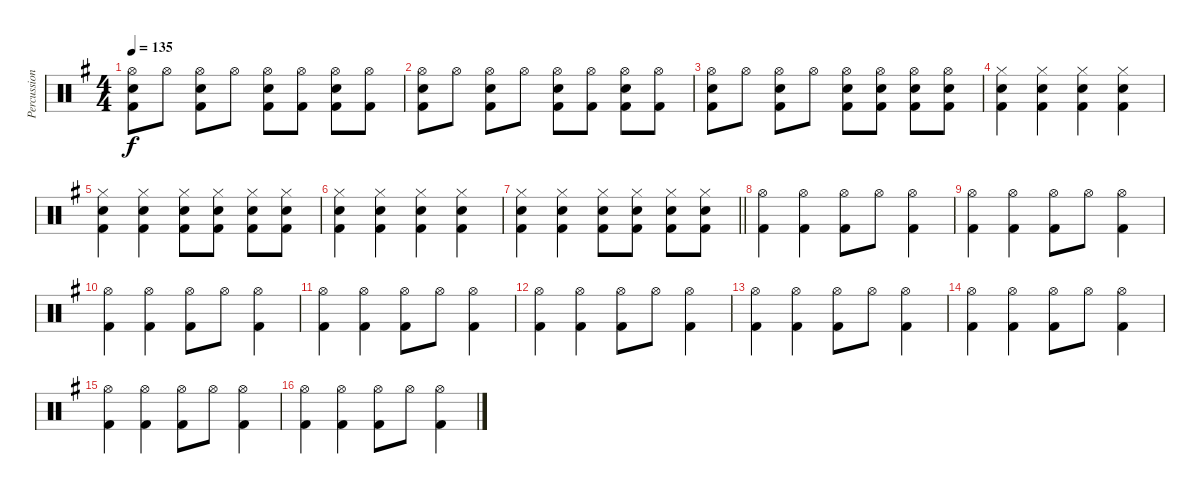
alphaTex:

\track ("Percussion" "Percussion") {instrument percussion}
\staff {score}
\articulation defaults
\ts (4 4)
\tempo 135
\clef neutral
\ks g
("Hi-Hat (open)" "Snare (hit) 2" "Kick (hit) 2").8{dy f} "Hi-Hat (open)".8 ("Hi-Hat (open)" "Snare (hit) 2" "Kick (hit) 2").8 "Hi-Hat (open)".8 ("Hi-Hat (open)" "Snare (hit) 2" "Kick (hit) 2").8 ("Hi-Hat (open)" "Kick (hit) 2").8 ("Hi-Hat (open)" "Snare (hit) 2" "Kick (hit) 2").8 ("Hi-Hat (open)" "Kick (hit) 2").8 |
("Hi-Hat (open)" "Snare (hit) 2" "Kick (hit) 2").8 "Hi-Hat (open)".8 ("Hi-Hat (open)" "Snare (hit) 2" "Kick (hit) 2").8 "Hi-Hat (open)".8 ("Hi-Hat (open)" "Snare (hit) 2" "Kick (hit) 2").8 ("Hi-Hat (open)" "Kick (hit) 2").8 ("Hi-Hat (open)" "Snare (hit) 2" "Kick (hit) 2").8 ("Hi-Hat (open)" "Kick (hit) 2").8 |
("Hi-Hat (open)" "Snare (hit) 2" "Kick (hit) 2").8 "Hi-Hat (open)".8 ("Hi-Hat (open)" "Snare (hit) 2" "Kick (hit) 2").8 "Hi-Hat (open)".8 ("Hi-Hat (open)" "Snare (hit) 2" "Kick (hit) 2").8 ("Hi-Hat (open)" "Snare (hit) 2" "Kick (hit) 2").8 ("Hi-Hat (open)" "Snare (hit) 2" "Kick (hit) 2").8 ("Hi-Hat (open)" "Snare (hit) 2" "Kick (hit) 2").8 |
("Hi-Hat (closed)" "Snare (hit) 2" "Kick (hit) 2").4 ("Hi-Hat (closed)" "Snare (hit) 2" "Kick (hit) 2").4 ("Hi-Hat (closed)" "Snare (hit) 2" "Kick (hit) 2").4 ("Hi-Hat (closed)" "Snare (hit) 2" "Kick (hit) 2").4 |
("Hi-Hat (closed)" "Snare (hit) 2" "Kick (hit) 2").4 ("Hi-Hat (closed)" "Snare (hit) 2" "Kick (hit) 2").4 ("Hi-Hat (closed)" "Snare (hit) 2" "Kick (hit) 2").8 ("Hi-Hat (closed)" "Snare (hit) 2" "Kick (hit) 2").8 ("Hi-Hat (closed)" "Snare (hit) 2" "Kick (hit) 2").8 ("Hi-Hat (closed)" "Snare (hit) 2" "Kick (hit) 2").8 |
("Hi-Hat (closed)" "Snare (hit) 2" "Kick (hit) 2").4 ("Hi-Hat (closed)" "Snare (hit) 2" "Kick (hit) 2").4 ("Hi-Hat (closed)" "Snare (hit) 2" "Kick (hit) 2").4 ("Hi-Hat (closed)" "Snare (hit) 2" "Kick (hit) 2").4 |
\barLineRight lightlight
("Hi-Hat (closed)" "Snare (hit) 2" "Kick (hit) 2").4 ("Hi-Hat (closed)" "Snare (hit) 2" "Kick (hit) 2").4 ("Hi-Hat (closed)" "Snare (hit) 2" "Kick (hit) 2").8 ("Hi-Hat (closed)" "Snare (hit) 2" "Kick (hit) 2").8 ("Hi-Hat (closed)" "Snare (hit) 2" "Kick (hit) 2").8 ("Hi-Hat (closed)" "Snare (hit) 2" "Kick (hit) 2").8 |
("Hi-Hat (open)" "Kick (hit) 2").4 ("Hi-Hat (open)" "Kick (hit) 2").4 ("Hi-Hat (open)" "Kick (hit) 2").8 "Hi-Hat (open)".8 ("Hi-Hat (open)" "Kick (hit) 2").4 |
("Hi-Hat (open)" "Kick (hit) 2").4 ("Hi-Hat (open)" "Kick (hit) 2").4 ("Hi-Hat (open)" "Kick (hit) 2").8 "Hi-Hat (open)".8 ("Hi-Hat (open)" "Kick (hit) 2").4 |
("Hi-Hat (open)" "Kick (hit) 2").4 ("Hi-Hat (open)" "Kick (hit) 2").4 ("Hi-Hat (open)" "Kick (hit) 2").8 "Hi-Hat (open)".8 ("Hi-Hat (open)" "Kick (hit) 2").4 |
("Hi-Hat (open)" "Kick (hit) 2").4 ("Hi-Hat (open)" "Kick (hit) 2").4 ("Hi-Hat (open)" "Kick (hit) 2").8 "Hi-Hat (open)".8 ("Hi-Hat (open)" "Kick (hit) 2").4 |
("Hi-Hat (open)" "Kick (hit) 2").4 ("Hi-Hat (open)" "Kick (hit) 2").4 ("Hi-Hat (open)" "Kick (hit) 2").8 "Hi-Hat (open)".8 ("Hi-Hat (open)" "Kick (hit) 2").4 |
("Hi-Hat (open)" "Kick (hit) 2").4 ("Hi-Hat (open)" "Kick (hit) 2").4 ("Hi-Hat (open)" "Kick (hit) 2").8 "Hi-Hat (open)".8 ("Hi-Hat (open)" "Kick (hit) 2").4 |
("Hi-Hat (open)" "Kick (hit) 2").4 ("Hi-Hat (open)" "Kick (hit) 2").4 ("Hi-Hat (open)" "Kick (hit) 2").8 "Hi-Hat (open)".8 ("Hi-Hat (open)" "Kick (hit) 2").4 |
("Hi-Hat (open)" "Kick (hit) 2").4 ("Hi-Hat (open)" "Kick (hit) 2").4 ("Hi-Hat (open)" "Kick (hit) 2").8 "Hi-Hat (open)".8 ("Hi-Hat (open)" "Kick (hit) 2").4 |
("Hi-Hat (open)" "Kick (hit) 2").4 ("Hi-Hat (open)" "Kick (hit) 2").4 ("Hi-Hat (open)" "Kick (hit) 2").8 "Hi-Hat (open)".8 ("Hi-Hat (open)" "Kick (hit) 2").4
